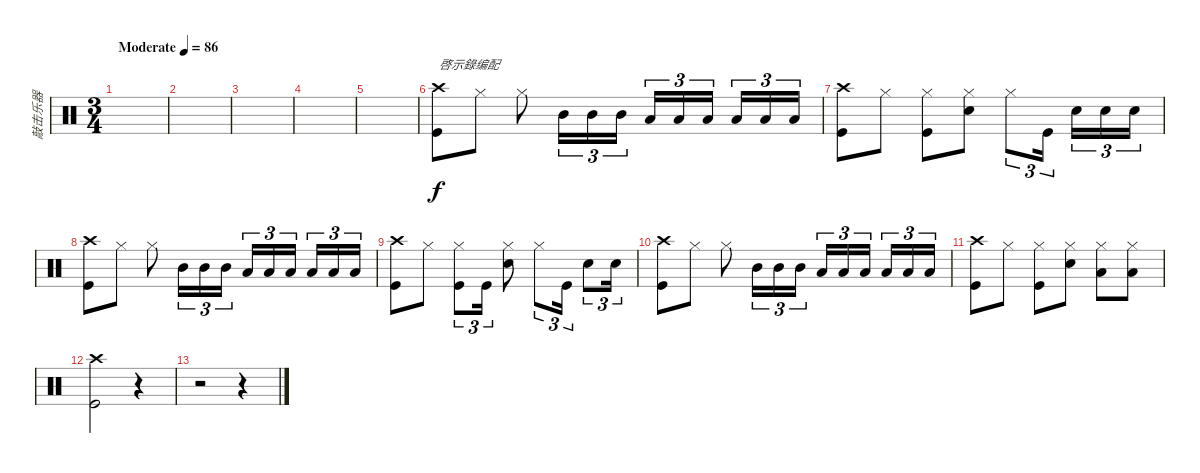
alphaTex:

\track ("敲击乐器" "敲击乐器") {instrument percussion}
\staff {score}
\articulation defaults
\ts (3 4)
\tempo (86 "Moderate")
\clef neutral
\ks c
|
|
|
|
|
("Crash high (hit)" "Kick (hit)").8{txt "啓示錄编配"} "Hi-Hat (closed)".8 "Hi-Hat (closed)".8 "Mid Tom (hit)".16{tu (3 2)} "Mid Tom (hit)".16{tu (3 2)} "Mid Tom (hit)".16{tu (3 2)} "Low Tom (hit)".16{tu (3 2)} "Low Tom (hit)".16{tu (3 2)} "Low Tom (hit)".16{tu (3 2) beam splitsecondary} "Low Floor Tom (hit)".16{tu (3 2)} "Low Floor Tom (hit)".16{tu (3 2)} "Low Floor Tom (hit)".16{tu (3 2)} |
("Crash high (hit)" "Kick (hit)").8 "Hi-Hat (closed)".8 ("Hi-Hat (closed)" "Kick (hit)").8 ("Hi-Hat (closed)" "Snare (hit) 2").8 "Hi-Hat (closed)".8{tu (3 2)} "Kick (hit)".16{tu (3 2) beam splitsecondary} "Snare (hit) 2".16{tu (3 2)} "Snare (hit) 2".16{tu (3 2)} "Snare (hit) 2".16{tu (3 2)} |
("Crash high (hit)" "Kick (hit)").8 "Hi-Hat (closed)".8 "Hi-Hat (closed)".8 "Mid Tom (hit)".16{tu (3 2)} "Mid Tom (hit)".16{tu (3 2)} "Mid Tom (hit)".16{tu (3 2)} "Low Tom (hit)".16{tu (3 2)} "Low Tom (hit)".16{tu (3 2)} "Low Tom (hit)".16{tu (3 2) beam splitsecondary} "Low Floor Tom (hit)".16{tu (3 2)} "Low Floor Tom (hit)".16{tu (3 2)} "Low Floor Tom (hit)".16{tu (3 2)} |
("Crash high (hit)" "Kick (hit)").8 "Hi-Hat (closed)".8 ("Hi-Hat (closed)" "Kick (hit)").8{tu (3 2)} "Kick (hit)".16{tu (3 2)} ("Hi-Hat (closed)" "Snare (hit) 2").8 "Hi-Hat (closed)".8{tu (3 2)} "Kick (hit)".16{tu (3 2)} "Snare (hit) 2".8{tu (3 2)} "Snare (hit) 2".16{tu (3 2)} |
("Crash high (hit)" "Kick (hit)").8 "Hi-Hat (closed)".8 "Hi-Hat (closed)".8 "Mid Tom (hit)".16{tu (3 2)} "Mid Tom (hit)".16{tu (3 2)} "Mid Tom (hit)".16{tu (3 2)} "Low Tom (hit)".16{tu (3 2)} "Low Tom (hit)".16{tu (3 2)} "Low Tom (hit)".16{tu (3 2) beam splitsecondary} "Low Floor Tom (hit)".16{tu (3 2)} "Low Floor Tom (hit)".16{tu (3 2)} "Low Floor Tom (hit)".16{tu (3 2)} |
("Crash high (hit)" "Kick (hit)").8 "Hi-Hat (closed)".8 ("Hi-Hat (closed)" "Kick (hit)").8 ("Hi-Hat (closed)" "Snare (hit) 2").8 ("Hi-Hat (closed)" "Low Tom (hit)").8 ("Hi-Hat (closed)" "Low Floor Tom (hit)").8 |
("Crash high (hit)" "Kick (hit)").2 r.4 |
r.2 r.4
